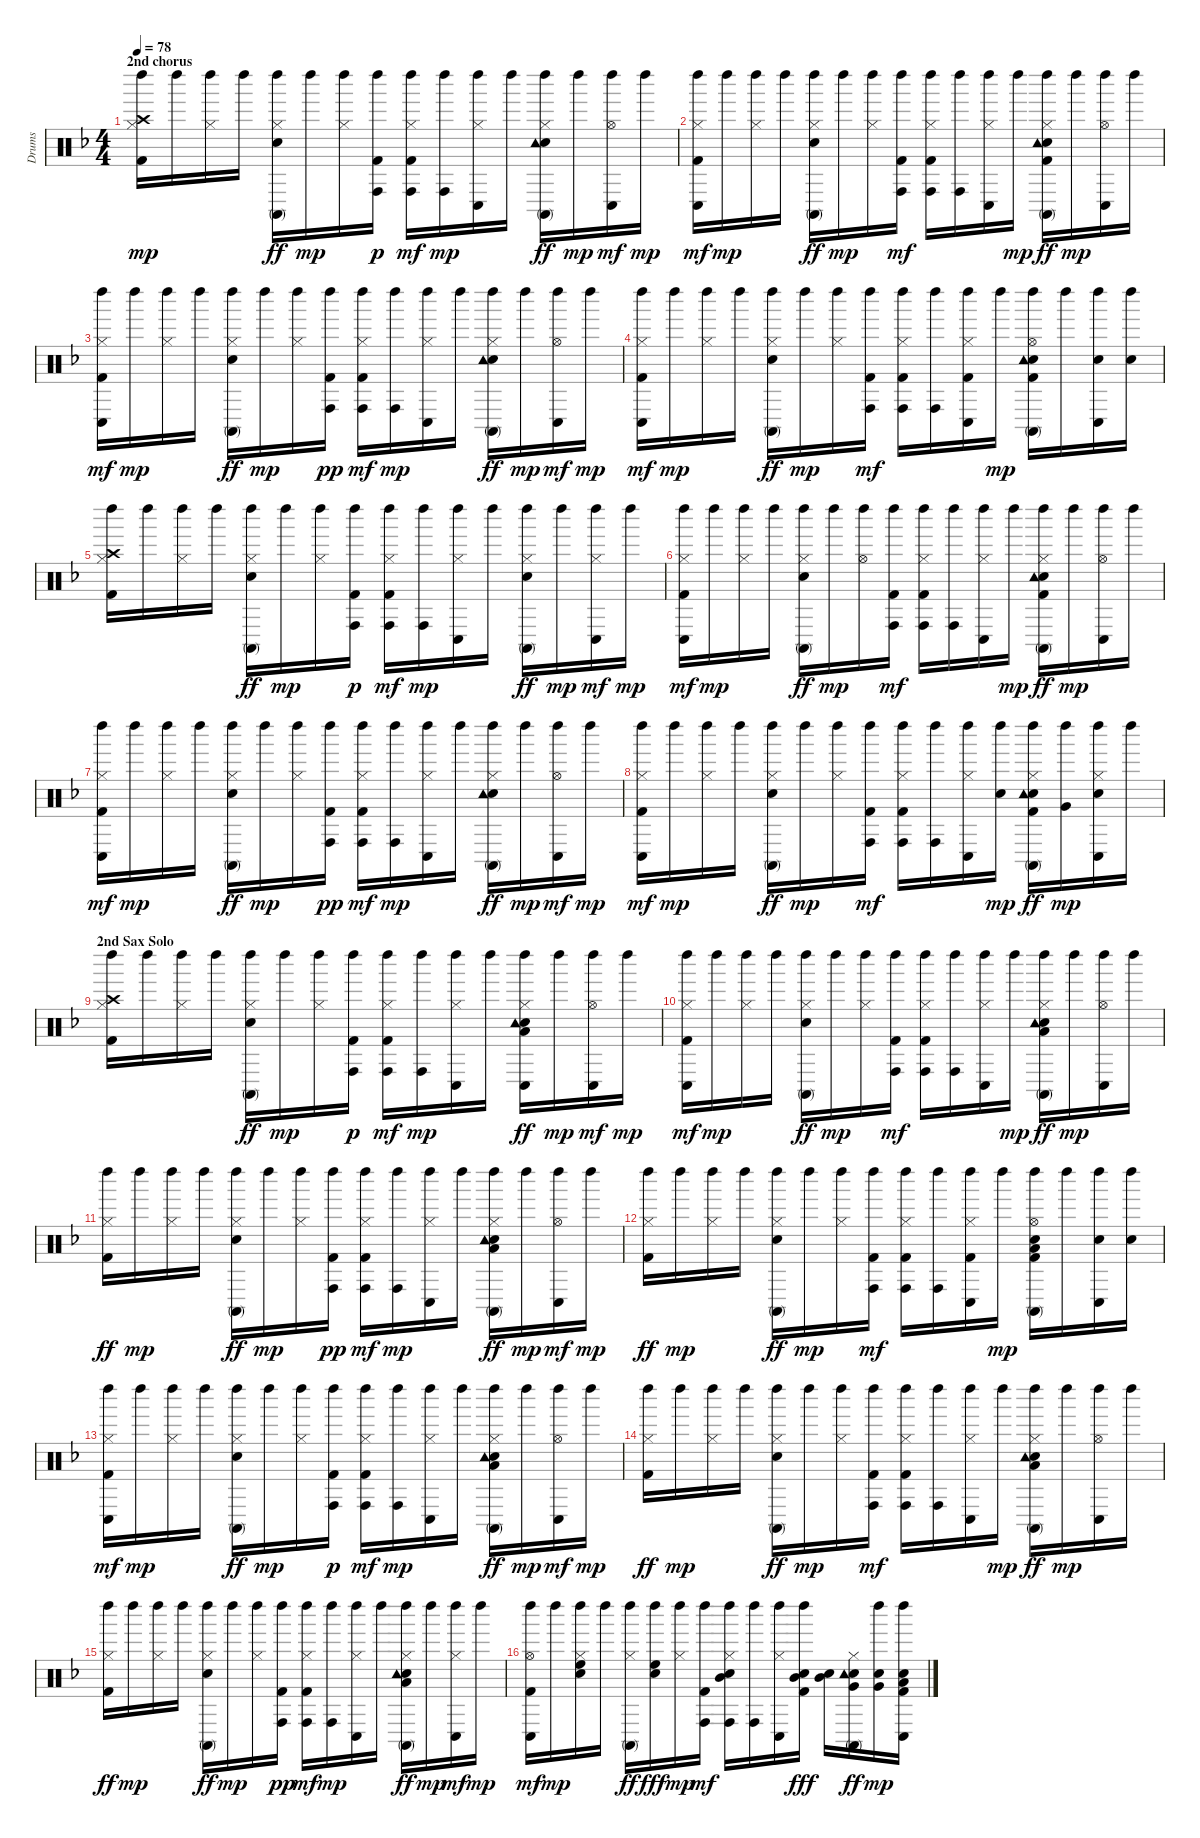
\track ("Drums" "Drums") {instrument percussion}
\staff {score}
\articulation defaults
\ts (4 4)
\section ("" "2nd chorus")
\tempo 78
\clef neutral
\ks f
("Kick (hit) 2" "Hi-Hat (closed)" "Left Maraca (hit)" "Crash high (hit)").16{dy mp} "Left Maraca (hit)".16 ("Hi-Hat (closed)" "Left Maraca (hit)").16 "Left Maraca (hit)".16 ("Snare (hit) 2" "Hi-Hat (closed)" "Left Maraca (hit)" "Conga high (mute)").16{dy ff} "Left Maraca (hit)".16{dy mp} ("Hi-Hat (closed)" "Left Maraca (hit)").16 ("Kick (hit) 2" "Left Maraca (hit)" "Conga high (hit)").16{dy p} ("Kick (hit) 2" "Hi-Hat (closed)" "Left Maraca (hit)" "Conga high (hit)").16{dy mf} ("Left Maraca (hit)" "Conga high (hit)").16{dy mp} ("Hi-Hat (closed)" "Left Maraca (hit)" "Conga low (hit)").16 "Left Maraca (hit)".16 ("Snare (hit) 2" "Hi-Hat (closed)" "Left Maraca (hit)" "Conga high (mute)" "Tambourine (hit)").16{dy ff} "Left Maraca (hit)".16{dy mp} ("Hi-Hat (open)" "Left Maraca (hit)" "Conga low (hit)").16{dy mf} "Left Maraca (hit)".16{dy mp} |
("Kick (hit) 2" "Hi-Hat (closed)" "Left Maraca (hit)" "Conga low (hit)").16{dy mf} "Left Maraca (hit)".16{dy mp} ("Hi-Hat (closed)" "Left Maraca (hit)").16 "Left Maraca (hit)".16 ("Snare (hit) 2" "Hi-Hat (closed)" "Left Maraca (hit)" "Conga high (mute)").16{dy ff} "Left Maraca (hit)".16{dy mp} ("Hi-Hat (closed)" "Left Maraca (hit)").16 ("Kick (hit) 2" "Left Maraca (hit)" "Conga high (hit)").16{dy mf} ("Kick (hit) 2" "Hi-Hat (closed)" "Left Maraca (hit)" "Conga high (hit)").16 ("Left Maraca (hit)" "Conga high (hit)").16 ("Hi-Hat (closed)" "Left Maraca (hit)" "Conga low (hit)").16 "Left Maraca (hit)".16{dy mp} ("Kick (hit) 2" "Snare (hit) 2" "Hi-Hat (closed)" "Left Maraca (hit)" "Conga high (mute)" "Tambourine (hit)").16{dy ff} "Left Maraca (hit)".16{dy mp} ("Hi-Hat (open)" "Left Maraca (hit)" "Conga low (hit)").16 "Left Maraca (hit)".16 |
("Kick (hit) 2" "Hi-Hat (closed)" "Left Maraca (hit)" "Conga low (hit)").16{dy mf} "Left Maraca (hit)".16{dy mp} ("Hi-Hat (closed)" "Left Maraca (hit)").16 "Left Maraca (hit)".16 ("Snare (hit) 2" "Hi-Hat (closed)" "Left Maraca (hit)" "Conga high (mute)").16{dy ff} "Left Maraca (hit)".16{dy mp} ("Hi-Hat (closed)" "Left Maraca (hit)").16 ("Kick (hit) 2" "Left Maraca (hit)" "Conga high (hit)").16{dy pp} ("Kick (hit) 2" "Hi-Hat (closed)" "Left Maraca (hit)" "Conga high (hit)").16{dy mf} ("Left Maraca (hit)" "Conga high (hit)").16{dy mp} ("Hi-Hat (closed)" "Left Maraca (hit)" "Conga low (hit)").16 "Left Maraca (hit)".16 ("Snare (hit) 2" "Hi-Hat (closed)" "Left Maraca (hit)" "Conga high (mute)" "Tambourine (hit)").16{dy ff} "Left Maraca (hit)".16{dy mp} ("Hi-Hat (open)" "Left Maraca (hit)" "Conga low (hit)").16{dy mf} "Left Maraca (hit)".16{dy mp} |
("Kick (hit) 2" "Hi-Hat (closed)" "Left Maraca (hit)" "Conga low (hit)").16{dy mf} "Left Maraca (hit)".16{dy mp} ("Hi-Hat (closed)" "Left Maraca (hit)").16 "Left Maraca (hit)".16 ("Snare (hit) 2" "Hi-Hat (closed)" "Left Maraca (hit)" "Conga high (mute)").16{dy ff} "Left Maraca (hit)".16{dy mp} ("Hi-Hat (closed)" "Left Maraca (hit)").16 ("Kick (hit) 2" "Left Maraca (hit)" "Conga high (hit)").16{dy mf} ("Kick (hit) 2" "Hi-Hat (closed)" "Left Maraca (hit)" "Conga high (hit)").16 ("Left Maraca (hit)" "Conga high (hit)").16 ("Kick (hit) 2" "Hi-Hat (closed)" "Left Maraca (hit)" "Conga low (hit)").16 "Left Maraca (hit)".16{dy mp} ("Kick (hit) 2" "Snare (hit) 2" "Hi-Hat (open)" "Left Maraca (hit)" "Conga high (mute)" "Tambourine (hit)").16 "Left Maraca (hit)".16 ("Snare (hit) 2" "Left Maraca (hit)" "Conga low (hit)").16 ("Snare (hit) 2" "Left Maraca (hit)").16 |
("Kick (hit) 2" "Hi-Hat (closed)" "Left Maraca (hit)" "Crash high (hit)").16 "Left Maraca (hit)".16 ("Hi-Hat (closed)" "Left Maraca (hit)").16 "Left Maraca (hit)".16 ("Snare (hit) 2" "Hi-Hat (closed)" "Left Maraca (hit)" "Conga high (mute)").16{dy ff} "Left Maraca (hit)".16{dy mp} ("Hi-Hat (closed)" "Left Maraca (hit)").16 ("Kick (hit) 2" "Left Maraca (hit)" "Conga high (hit)").16{dy p} ("Kick (hit) 2" "Hi-Hat (closed)" "Left Maraca (hit)" "Conga high (hit)").16{dy mf} ("Left Maraca (hit)" "Conga high (hit)").16{dy mp} ("Hi-Hat (closed)" "Left Maraca (hit)" "Conga low (hit)").16 "Left Maraca (hit)".16 ("Snare (hit) 2" "Hi-Hat (closed)" "Left Maraca (hit)" "Conga high (mute)").16{dy ff} "Left Maraca (hit)".16{dy mp} ("Hi-Hat (closed)" "Left Maraca (hit)" "Conga low (hit)").16{dy mf} "Left Maraca (hit)".16{dy mp} |
("Kick (hit) 2" "Hi-Hat (closed)" "Left Maraca (hit)" "Conga low (hit)").16{dy mf} "Left Maraca (hit)".16{dy mp} ("Hi-Hat (closed)" "Left Maraca (hit)").16 "Left Maraca (hit)".16 ("Snare (hit) 2" "Hi-Hat (closed)" "Left Maraca (hit)" "Conga high (mute)").16{dy ff} "Left Maraca (hit)".16{dy mp} ("Hi-Hat (open)" "Left Maraca (hit)").16 ("Kick (hit) 2" "Left Maraca (hit)" "Conga high (hit)").16{dy mf} ("Kick (hit) 2" "Hi-Hat (closed)" "Left Maraca (hit)" "Conga high (hit)").16 ("Left Maraca (hit)" "Conga high (hit)").16 ("Hi-Hat (closed)" "Left Maraca (hit)" "Conga low (hit)").16 "Left Maraca (hit)".16{dy mp} ("Kick (hit) 2" "Snare (hit) 2" "Hi-Hat (closed)" "Left Maraca (hit)" "Conga high (mute)" "Tambourine (hit)").16{dy ff} "Left Maraca (hit)".16{dy mp} ("Hi-Hat (open)" "Left Maraca (hit)" "Conga low (hit)").16 "Left Maraca (hit)".16 |
("Kick (hit) 2" "Hi-Hat (closed)" "Left Maraca (hit)" "Conga low (hit)").16{dy mf} "Left Maraca (hit)".16{dy mp} ("Hi-Hat (closed)" "Left Maraca (hit)").16 "Left Maraca (hit)".16 ("Snare (hit) 2" "Hi-Hat (closed)" "Left Maraca (hit)" "Conga high (mute)").16{dy ff} "Left Maraca (hit)".16{dy mp} ("Hi-Hat (closed)" "Left Maraca (hit)").16 ("Kick (hit) 2" "Left Maraca (hit)" "Conga high (hit)").16{dy pp} ("Kick (hit) 2" "Hi-Hat (closed)" "Left Maraca (hit)" "Conga high (hit)").16{dy mf} ("Left Maraca (hit)" "Conga high (hit)").16{dy mp} ("Hi-Hat (closed)" "Left Maraca (hit)" "Conga low (hit)").16 "Left Maraca (hit)".16 ("Snare (hit) 2" "Hi-Hat (closed)" "Left Maraca (hit)" "Conga high (mute)" "Tambourine (hit)").16{dy ff} "Left Maraca (hit)".16{dy mp} ("Hi-Hat (open)" "Left Maraca (hit)" "Conga low (hit)").16{dy mf} "Left Maraca (hit)".16{dy mp} |
("Kick (hit) 2" "Hi-Hat (closed)" "Left Maraca (hit)" "Conga low (hit)").16{dy mf} "Left Maraca (hit)".16{dy mp} ("Hi-Hat (closed)" "Left Maraca (hit)").16 "Left Maraca (hit)".16 ("Snare (hit) 2" "Hi-Hat (closed)" "Left Maraca (hit)" "Conga high (mute)").16{dy ff} "Left Maraca (hit)".16{dy mp} ("Hi-Hat (closed)" "Left Maraca (hit)").16 ("Kick (hit) 2" "Left Maraca (hit)" "Conga high (hit)").16{dy mf} ("Kick (hit) 2" "Hi-Hat (closed)" "Left Maraca (hit)" "Conga high (hit)").16 ("Left Maraca (hit)" "Conga high (hit)").16 ("Hi-Hat (closed)" "Left Maraca (hit)" "Conga low (hit)").16 ("Snare (hit) 2" "Left Maraca (hit)").16{dy mp} ("Kick (hit) 2" "Snare (hit) 2" "Hi-Hat (closed)" "Left Maraca (hit)" "Conga high (mute)" "Tambourine (hit)").16{dy ff} ("Left Maraca (hit)" "Very Low Tom (hit)").16{dy mp} ("Snare (hit) 2" "Hi-Hat (closed)" "Left Maraca (hit)" "Conga low (hit)").16 "Left Maraca (hit)".16 |
\section ("" "2nd Sax Solo")
("Kick (hit) 2" "Hi-Hat (closed)" "Left Maraca (hit)" "Crash high (hit)").16 "Left Maraca (hit)".16 ("Hi-Hat (closed)" "Left Maraca (hit)").16 "Left Maraca (hit)".16 ("Snare (hit) 2" "Hi-Hat (closed)" "Left Maraca (hit)" "Conga high (mute)").16{dy ff} "Left Maraca (hit)".16{dy mp} ("Hi-Hat (closed)" "Left Maraca (hit)").16 ("Kick (hit) 2" "Left Maraca (hit)" "Conga high (hit)").16{dy p} ("Kick (hit) 2" "Hi-Hat (closed)" "Left Maraca (hit)" "Conga high (hit)").16{dy mf} ("Left Maraca (hit)" "Conga high (hit)").16{dy mp} ("Hi-Hat (closed)" "Left Maraca (hit)" "Conga low (hit)").16 "Left Maraca (hit)".16 ("Snare (hit) 2" "Hi-Hat (closed)" "Left Maraca (hit)" "Low Floor Tom (hit)" "Conga low (hit)" "Tambourine (hit)").16{dy ff} "Left Maraca (hit)".16{dy mp} ("Hi-Hat (open)" "Left Maraca (hit)" "Conga low (hit)").16{dy mf} "Left Maraca (hit)".16{dy mp} |
("Kick (hit) 2" "Hi-Hat (closed)" "Left Maraca (hit)" "Conga low (hit)").16{dy mf} "Left Maraca (hit)".16{dy mp} ("Hi-Hat (closed)" "Left Maraca (hit)").16 "Left Maraca (hit)".16 ("Snare (hit) 2" "Hi-Hat (closed)" "Left Maraca (hit)" "Conga high (mute)").16{dy ff} "Left Maraca (hit)".16{dy mp} ("Hi-Hat (closed)" "Left Maraca (hit)").16 ("Kick (hit) 2" "Left Maraca (hit)" "Conga high (hit)").16{dy mf} ("Kick (hit) 2" "Hi-Hat (closed)" "Left Maraca (hit)" "Conga high (hit)").16 ("Left Maraca (hit)" "Conga high (hit)").16 ("Hi-Hat (closed)" "Left Maraca (hit)" "Conga low (hit)").16 "Left Maraca (hit)".16{dy mp} ("Snare (hit) 2" "Hi-Hat (closed)" "Left Maraca (hit)" "Low Floor Tom (hit)" "Conga high (mute)" "Tambourine (hit)").16{dy ff} "Left Maraca (hit)".16{dy mp} ("Hi-Hat (open)" "Left Maraca (hit)" "Conga low (hit)").16 "Left Maraca (hit)".16 |
("Kick (hit) 2" "Hi-Hat (closed)" "Left Maraca (hit)").16{dy ff} "Left Maraca (hit)".16{dy mp} ("Hi-Hat (closed)" "Left Maraca (hit)").16 "Left Maraca (hit)".16 ("Snare (hit) 2" "Hi-Hat (closed)" "Left Maraca (hit)" "Conga high (mute)").16{dy ff} "Left Maraca (hit)".16{dy mp} ("Hi-Hat (closed)" "Left Maraca (hit)").16 ("Kick (hit) 2" "Left Maraca (hit)" "Conga high (hit)").16{dy pp} ("Kick (hit) 2" "Hi-Hat (closed)" "Left Maraca (hit)" "Conga high (hit)").16{dy mf} ("Left Maraca (hit)" "Conga high (hit)").16{dy mp} ("Hi-Hat (closed)" "Left Maraca (hit)" "Conga low (hit)").16 "Left Maraca (hit)".16 ("Snare (hit) 2" "Hi-Hat (closed)" "Left Maraca (hit)" "Conga high (mute)" "Low Floor Tom (hit)" "Tambourine (hit)").16{dy ff} "Left Maraca (hit)".16{dy mp} ("Hi-Hat (open)" "Left Maraca (hit)" "Conga low (hit)").16{dy mf} "Left Maraca (hit)".16{dy mp} |
("Kick (hit) 2" "Hi-Hat (closed)" "Left Maraca (hit)").16{dy ff} "Left Maraca (hit)".16{dy mp} ("Hi-Hat (closed)" "Left Maraca (hit)").16 "Left Maraca (hit)".16 ("Snare (hit) 2" "Hi-Hat (closed)" "Left Maraca (hit)" "Conga high (mute)").16{dy ff} "Left Maraca (hit)".16{dy mp} ("Hi-Hat (closed)" "Left Maraca (hit)").16 ("Kick (hit) 2" "Left Maraca (hit)" "Conga high (hit)").16{dy mf} ("Kick (hit) 2" "Hi-Hat (closed)" "Left Maraca (hit)" "Conga high (hit)").16 ("Left Maraca (hit)" "Conga high (hit)").16 ("Kick (hit) 2" "Hi-Hat (closed)" "Left Maraca (hit)" "Conga low (hit)").16 "Left Maraca (hit)".16{dy mp} ("Kick (hit) 2" "Snare (hit) 2" "Hi-Hat (open)" "Left Maraca (hit)" "Conga high (mute)" "Low Floor Tom (hit)").16 "Left Maraca (hit)".16 ("Snare (hit) 2" "Left Maraca (hit)" "Conga low (hit)").16 ("Snare (hit) 2" "Left Maraca (hit)").16 |
("Kick (hit) 2" "Hi-Hat (closed)" "Left Maraca (hit)" "Conga low (hit)").16{dy mf} "Left Maraca (hit)".16{dy mp} ("Hi-Hat (closed)" "Left Maraca (hit)").16 "Left Maraca (hit)".16 ("Snare (hit) 2" "Hi-Hat (closed)" "Left Maraca (hit)" "Conga high (mute)").16{dy ff} "Left Maraca (hit)".16{dy mp} ("Hi-Hat (closed)" "Left Maraca (hit)").16 ("Kick (hit) 2" "Left Maraca (hit)" "Conga high (hit)").16{dy p} ("Kick (hit) 2" "Hi-Hat (closed)" "Left Maraca (hit)" "Conga high (hit)").16{dy mf} ("Left Maraca (hit)" "Conga high (hit)").16{dy mp} ("Hi-Hat (closed)" "Left Maraca (hit)" "Conga low (hit)").16 "Left Maraca (hit)".16 ("Snare (hit) 2" "Hi-Hat (closed)" "Left Maraca (hit)" "Low Floor Tom (hit)" "Conga high (mute)" "Tambourine (hit)").16{dy ff} "Left Maraca (hit)".16{dy mp} ("Hi-Hat (open)" "Left Maraca (hit)" "Conga low (hit)").16{dy mf} "Left Maraca (hit)".16{dy mp} |
("Kick (hit) 2" "Hi-Hat (closed)" "Left Maraca (hit)").16{dy ff} "Left Maraca (hit)".16{dy mp} ("Hi-Hat (closed)" "Left Maraca (hit)").16 "Left Maraca (hit)".16 ("Snare (hit) 2" "Hi-Hat (closed)" "Left Maraca (hit)" "Conga high (mute)").16{dy ff} "Left Maraca (hit)".16{dy mp} ("Hi-Hat (closed)" "Left Maraca (hit)").16 ("Kick (hit) 2" "Left Maraca (hit)" "Conga high (hit)").16{dy mf} ("Kick (hit) 2" "Hi-Hat (closed)" "Left Maraca (hit)" "Conga high (hit)").16 ("Left Maraca (hit)" "Conga high (hit)").16 ("Hi-Hat (closed)" "Left Maraca (hit)" "Conga low (hit)").16 "Left Maraca (hit)".16{dy mp} ("Snare (hit) 2" "Hi-Hat (closed)" "Left Maraca (hit)" "Low Floor Tom (hit)" "Conga high (mute)" "Tambourine (hit)").16{dy ff} "Left Maraca (hit)".16{dy mp} ("Hi-Hat (open)" "Left Maraca (hit)" "Conga low (hit)").16 "Left Maraca (hit)".16 |
("Kick (hit) 2" "Hi-Hat (closed)" "Left Maraca (hit)").16{dy ff} "Left Maraca (hit)".16{dy mp} ("Hi-Hat (closed)" "Left Maraca (hit)").16 "Left Maraca (hit)".16 ("Snare (hit) 2" "Hi-Hat (closed)" "Left Maraca (hit)" "Conga high (mute)").16{dy ff} "Left Maraca (hit)".16{dy mp} ("Hi-Hat (closed)" "Left Maraca (hit)").16 ("Kick (hit) 2" "Left Maraca (hit)" "Conga high (hit)").16{dy pp} ("Kick (hit) 2" "Hi-Hat (closed)" "Left Maraca (hit)" "Conga high (hit)").16{dy mf} ("Left Maraca (hit)" "Conga high (hit)").16{dy mp} ("Hi-Hat (closed)" "Left Maraca (hit)" "Conga low (hit)").16 "Left Maraca (hit)".16 ("Snare (hit) 2" "Hi-Hat (closed)" "Left Maraca (hit)" "Conga high (mute)" "Low Floor Tom (hit)" "Tambourine (hit)").16{dy ff} "Left Maraca (hit)".16{dy mp} ("Hi-Hat (closed)" "Left Maraca (hit)" "Conga low (hit)").16{dy mf} "Left Maraca (hit)".16{dy mp} |
("Kick (hit) 2" "Hi-Hat (open)" "Left Maraca (hit)" "Conga low (hit)").16{dy mf} "Left Maraca (hit)".16{dy mp} ("Snare (hit) 2" "Hi-Hat (closed)" "Left Maraca (hit)" "High Floor Tom (hit)").16 "Left Maraca (hit)".16 ("Hi-Hat (closed)" "Left Maraca (hit)" "Conga high (mute)").16{dy ff} ("Left Maraca (hit)" "High Floor Tom (hit)" "Snare (hit) 2").16{dy fff} ("Hi-Hat (closed)" "Left Maraca (hit)").16{dy mp} ("Kick (hit) 2" "Left Maraca (hit)" "Conga high (hit)").16{dy mf} ("Snare (hit) 2" "Hi-Hat (closed)" "Left Maraca (hit)" "Mid Tom (hit)" "Conga high (hit)").16 ("Left Maraca (hit)" "Conga high (hit)").16 ("Hi-Hat (closed)" "Left Maraca (hit)" "Conga low (hit)").16 ("Kick (hit) 2" "Left Maraca (hit)" "Mid Tom (hit)" "Snare (hit) 2").16{dy fff} ("Snare (hit) 2" "Mid Tom (hit)").16 ("Snare (hit) 2" "Hi-Hat (closed)" "Conga high (mute)" "Very Low Tom (hit)" "Tambourine (hit)").16{dy ff} ("Snare (hit) 2" "Left Maraca (hit)" "Very Low Tom (hit)").16{dy mp} ("Kick (hit) 2" "Snare (hit) 2" "Left Maraca (hit)" "Low Floor Tom (hit)" "Conga low (hit)").16
